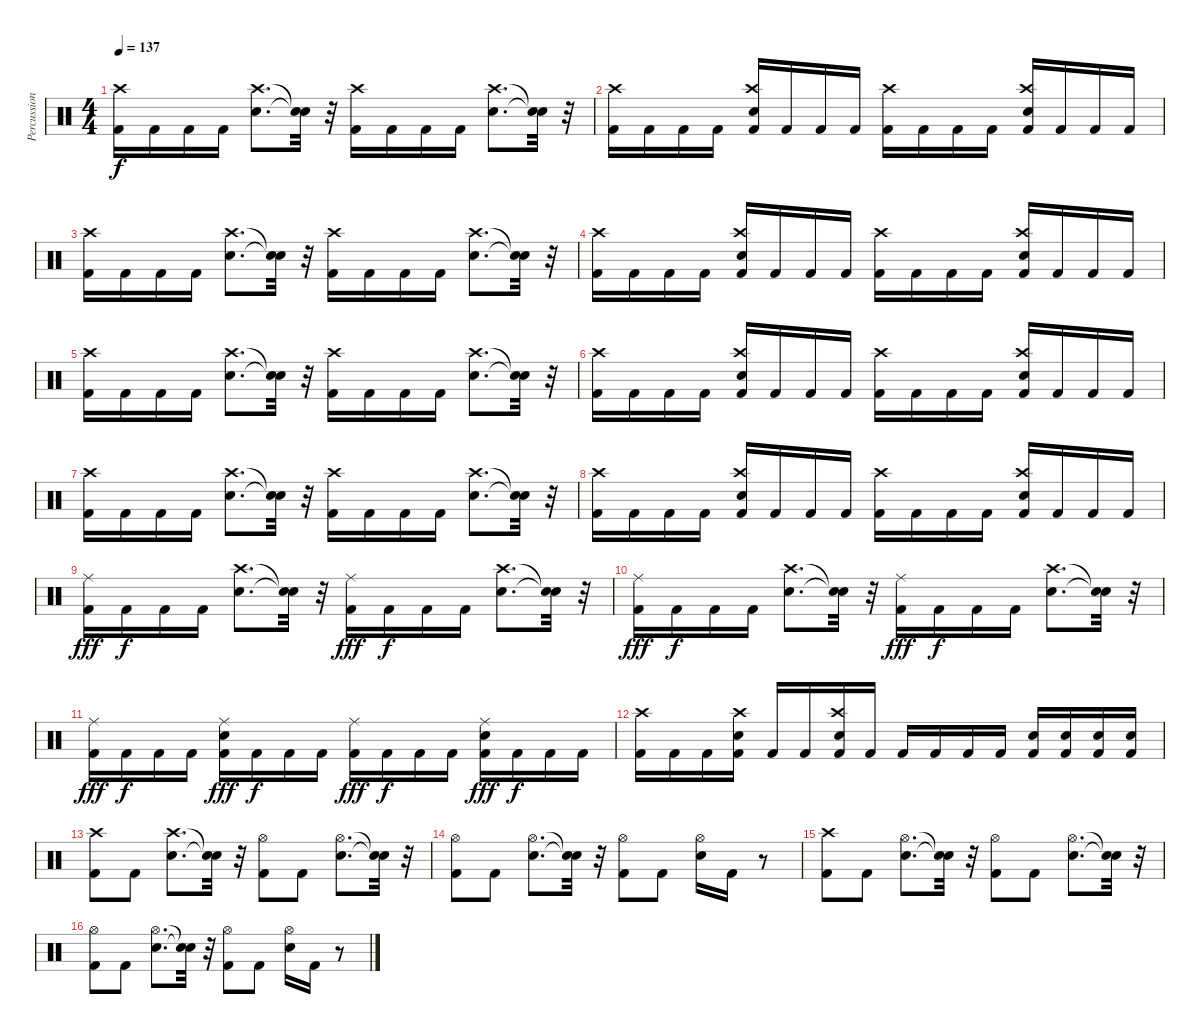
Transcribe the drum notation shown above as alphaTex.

\track ("Percussion" "Percussion") {instrument percussion}
\staff {score}
\articulation defaults
\ts (4 4)
\tempo 137
\clef neutral
\ks c
("Kick (hit) 2" "Crash high (hit)").16{dy f} "Kick (hit) 2".16 "Kick (hit) 2".16 "Kick (hit) 2".16 ("Snare (hit) 2" "Crash high (hit)").8{d} ("Snare (hit)"{t} "Snare (hit)"{t}).32 r.32 ("Kick (hit) 2" "Crash high (hit)").16 "Kick (hit) 2".16 "Kick (hit) 2".16 "Kick (hit) 2".16 ("Snare (hit) 2" "Crash high (hit)").8{d} ("Snare (hit)"{t} "Snare (hit)"{t}).32 r.32 |
("Kick (hit) 2" "Crash high (hit)").16 "Kick (hit) 2".16 "Kick (hit) 2".16 "Kick (hit) 2".16 ("Kick (hit) 2" "Crash high (hit)" "Snare (hit) 2").16 "Kick (hit) 2".16 "Kick (hit) 2".16 "Kick (hit) 2".16 ("Kick (hit) 2" "Crash high (hit)").16 "Kick (hit) 2".16 "Kick (hit) 2".16 "Kick (hit) 2".16 ("Kick (hit) 2" "Crash high (hit)" "Snare (hit) 2").16 "Kick (hit) 2".16 "Kick (hit) 2".16 "Kick (hit) 2".16 |
("Kick (hit) 2" "Crash high (hit)").16 "Kick (hit) 2".16 "Kick (hit) 2".16 "Kick (hit) 2".16 ("Snare (hit) 2" "Crash high (hit)").8{d} ("Snare (hit)"{t} "Snare (hit)"{t}).32 r.32 ("Kick (hit) 2" "Crash high (hit)").16 "Kick (hit) 2".16 "Kick (hit) 2".16 "Kick (hit) 2".16 ("Snare (hit) 2" "Crash high (hit)").8{d} ("Snare (hit)"{t} "Snare (hit)"{t}).32 r.32 |
("Kick (hit) 2" "Crash high (hit)").16 "Kick (hit) 2".16 "Kick (hit) 2".16 "Kick (hit) 2".16 ("Kick (hit) 2" "Crash high (hit)" "Snare (hit) 2").16 "Kick (hit) 2".16 "Kick (hit) 2".16 "Kick (hit) 2".16 ("Kick (hit) 2" "Crash high (hit)").16 "Kick (hit) 2".16 "Kick (hit) 2".16 "Kick (hit) 2".16 ("Kick (hit) 2" "Crash high (hit)" "Snare (hit) 2").16 "Kick (hit) 2".16 "Kick (hit) 2".16 "Kick (hit) 2".16 |
("Kick (hit) 2" "Crash high (hit)").16 "Kick (hit) 2".16 "Kick (hit) 2".16 "Kick (hit) 2".16 ("Snare (hit) 2" "Crash high (hit)").8{d} ("Snare (hit)"{t} "Snare (hit)"{t}).32 r.32 ("Kick (hit) 2" "Crash high (hit)").16 "Kick (hit) 2".16 "Kick (hit) 2".16 "Kick (hit) 2".16 ("Snare (hit) 2" "Crash high (hit)").8{d} ("Snare (hit)"{t} "Snare (hit)"{t}).32 r.32 |
("Kick (hit) 2" "Crash high (hit)").16 "Kick (hit) 2".16 "Kick (hit) 2".16 "Kick (hit) 2".16 ("Kick (hit) 2" "Crash high (hit)" "Snare (hit) 2").16 "Kick (hit) 2".16 "Kick (hit) 2".16 "Kick (hit) 2".16 ("Kick (hit) 2" "Crash high (hit)").16 "Kick (hit) 2".16 "Kick (hit) 2".16 "Kick (hit) 2".16 ("Kick (hit) 2" "Crash high (hit)" "Snare (hit) 2").16 "Kick (hit) 2".16 "Kick (hit) 2".16 "Kick (hit) 2".16 |
("Kick (hit) 2" "Crash high (hit)").16 "Kick (hit) 2".16 "Kick (hit) 2".16 "Kick (hit) 2".16 ("Snare (hit) 2" "Crash high (hit)").8{d} ("Snare (hit)"{t} "Snare (hit)"{t}).32 r.32 ("Kick (hit) 2" "Crash high (hit)").16 "Kick (hit) 2".16 "Kick (hit) 2".16 "Kick (hit) 2".16 ("Snare (hit) 2" "Crash high (hit)").8{d} ("Snare (hit)"{t} "Snare (hit)"{t}).32 r.32 |
("Kick (hit) 2" "Crash high (hit)").16 "Kick (hit) 2".16 "Kick (hit) 2".16 "Kick (hit) 2".16 ("Kick (hit) 2" "Crash high (hit)" "Snare (hit) 2").16 "Kick (hit) 2".16 "Kick (hit) 2".16 "Kick (hit) 2".16 ("Kick (hit) 2" "Crash high (hit)").16 "Kick (hit) 2".16 "Kick (hit) 2".16 "Kick (hit) 2".16 ("Kick (hit) 2" "Crash high (hit)" "Snare (hit) 2").16 "Kick (hit) 2".16 "Kick (hit) 2".16 "Kick (hit) 2".16 |
("Kick (hit) 2" "Ride (middle)").16{dy fff} "Kick (hit) 2".16{dy f} "Kick (hit) 2".16 "Kick (hit) 2".16 ("Snare (hit) 2" "Crash high (hit)").8{d} ("Snare (hit)"{t} "Snare (hit)"{t}).32 r.32 ("Kick (hit) 2" "Ride (middle)").16{dy fff} "Kick (hit) 2".16{dy f} "Kick (hit) 2".16 "Kick (hit) 2".16 ("Snare (hit) 2" "Crash high (hit)").8{d} ("Snare (hit)"{t} "Snare (hit)"{t}).32 r.32 |
("Kick (hit) 2" "Ride (middle)").16{dy fff} "Kick (hit) 2".16{dy f} "Kick (hit) 2".16 "Kick (hit) 2".16 ("Snare (hit) 2" "Crash high (hit)").8{d} ("Snare (hit)"{t} "Snare (hit)"{t}).32 r.32 ("Kick (hit) 2" "Ride (middle)").16{dy fff} "Kick (hit) 2".16{dy f} "Kick (hit) 2".16 "Kick (hit) 2".16 ("Snare (hit) 2" "Crash high (hit)").8{d} ("Snare (hit)"{t} "Snare (hit)"{t}).32 r.32 |
("Kick (hit) 2" "Ride (middle)").16{dy fff} "Kick (hit) 2".16{dy f} "Kick (hit) 2".16 "Kick (hit) 2".16 ("Kick (hit) 2" "Ride (middle)" "Snare (hit) 2").16{dy fff} "Kick (hit) 2".16{dy f} "Kick (hit) 2".16 "Kick (hit) 2".16 ("Kick (hit) 2" "Ride (middle)").16{dy fff} "Kick (hit) 2".16{dy f} "Kick (hit) 2".16 "Kick (hit) 2".16 ("Kick (hit) 2" "Ride (middle)" "Snare (hit) 2").16{dy fff} "Kick (hit) 2".16{dy f} "Kick (hit) 2".16 "Kick (hit) 2".16 |
("Crash high (hit)" "Kick (hit) 2").16 "Kick (hit) 2".16 "Kick (hit) 2".16 ("Crash high (hit)" "Snare (hit) 2" "Kick (hit) 2").16 "Kick (hit) 2".16 "Kick (hit) 2".16 ("Crash high (hit)" "Snare (hit) 2" "Kick (hit) 2").16 "Kick (hit) 2".16 "Kick (hit) 2".16 "Kick (hit) 2".16 "Kick (hit) 2".16 "Kick (hit) 2".16 ("Snare (hit) 2" "Kick (hit) 2").16 ("Snare (hit) 2" "Kick (hit) 2").16 ("Snare (hit) 2" "Kick (hit) 2").16 ("Snare (hit) 2" "Kick (hit) 2").16 |
("Crash high (hit)" "Kick (hit) 2").8 "Kick (hit) 2".8 ("Crash high (hit)" "Snare (hit) 2").8{d} ("Snare (hit)"{t} "Snare (hit)"{t}).32 r.32 ("Hi-Hat (open)" "Kick (hit) 2").8 "Kick (hit) 2".8 ("Hi-Hat (open)" "Snare (hit) 2").8{d} ("Snare (hit)"{t} "Snare (hit)"{t}).32 r.32 |
("Hi-Hat (open)" "Kick (hit) 2").8 "Kick (hit) 2".8 ("Hi-Hat (open)" "Snare (hit) 2").8{d} ("Snare (hit)"{t} "Snare (hit)"{t}).32 r.32 ("Hi-Hat (open)" "Kick (hit) 2").8 "Kick (hit) 2".8 ("Hi-Hat (open)" "Snare (hit) 2").16 "Kick (hit) 2".16 r.8 |
("Crash high (hit)" "Kick (hit) 2").8 "Kick (hit) 2".8 ("Hi-Hat (open)" "Snare (hit) 2").8{d} ("Snare (hit)"{t} "Snare (hit)"{t}).32 r.32 ("Hi-Hat (open)" "Kick (hit) 2").8 "Kick (hit) 2".8 ("Hi-Hat (open)" "Snare (hit) 2").8{d} ("Snare (hit)"{t} "Snare (hit)"{t}).32 r.32 |
("Hi-Hat (open)" "Kick (hit) 2").8 "Kick (hit) 2".8 ("Hi-Hat (open)" "Snare (hit) 2").8{d} ("Snare (hit)"{t} "Snare (hit)"{t}).32 r.32 ("Hi-Hat (open)" "Kick (hit) 2").8 "Kick (hit) 2".8 ("Hi-Hat (open)" "Snare (hit) 2").16 "Kick (hit) 2".16 r.8
